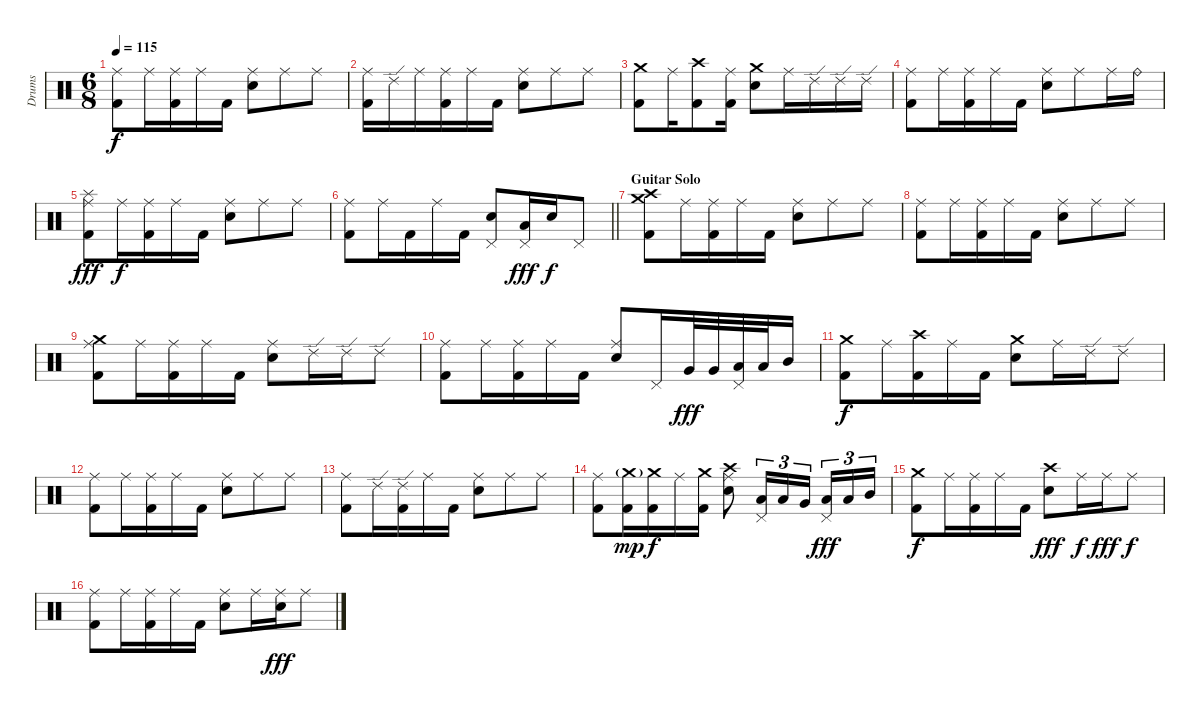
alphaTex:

\track ("Drums" "Drums") {instrument percussion}
\staff {score}
\articulation defaults
\ts (6 8)
\tempo 115
\clef neutral
\ks c
("Ride (middle)" "Kick (hit) 2").8{dy f} "Ride (middle)".16 ("Ride (middle)" "Kick (hit) 2").16 "Ride (middle)".16 "Kick (hit) 2".16 ("Ride (middle)" "Electric Snare (hit)").8 "Ride (middle)".8 "Ride (middle)".8 |
("Ride (middle)" "Kick (hit) 2").16 "Ride (edge) 2".16 "Ride (middle)".16 ("Ride (middle)" "Kick (hit) 2").16 "Ride (middle)".16 "Kick (hit) 2".16 ("Ride (middle)" "Electric Snare (hit)").8 "Ride (middle)".8 "Ride (middle)".8 |
("Crash medium (hit)" "Kick (hit) 2").8 "Ride (middle)".16 ("Crash high (hit)" "Kick (hit) 2").8 ("Ride (middle)" "Kick (hit) 2").16 ("Crash medium (hit)" "Electric Snare (hit)").8 "Ride (middle)".16 "Ride (edge) 2".16 "Ride (edge) 2".16 "Ride (edge) 2".16 |
("Ride (middle)" "Kick (hit) 2").8 "Ride (middle)".16 ("Ride (middle)" "Kick (hit) 2").16 "Ride (middle)".16 "Kick (hit) 2".16 ("Ride (middle)" "Electric Snare (hit)").8 "Ride (middle)".8 "Ride (middle)".16 "Ride (bell)".16 |
("Splash (hit)" "Ride (middle)" "Kick (hit) 2").8{dy fff} "Ride (middle)".16{dy f} ("Ride (middle)" "Kick (hit) 2").16 "Ride (middle)".16 "Kick (hit) 2".16 ("Ride (middle)" "Electric Snare (hit)").8 "Ride (middle)".8 "Ride (middle)".8 |
\barLineRight lightlight
("Ride (middle)" "Kick (hit) 2").8 "Ride (middle)".16 "Kick (hit) 2".16 "Ride (middle)".16 "Kick (hit) 2".16 ("Pedal Hi-Hat (hit)" "Electric Snare (hit)").8 ("Pedal Hi-Hat (hit)" "Low Tom (hit)").16{dy fff} "Electric Snare (hit)".16{dy f} "Pedal Hi-Hat (hit)".8 |
\section ("" "Guitar Solo")
("Crash medium (hit)" "Crash high (hit)" "Kick (hit) 2").8 "Ride (middle)".16 ("Ride (middle)" "Kick (hit) 2").16 "Ride (middle)".16 "Kick (hit) 2".16 ("Ride (middle)" "Electric Snare (hit)").8 "Ride (middle)".8 "Ride (middle)".8 |
("Ride (middle)" "Kick (hit) 2").8 "Ride (middle)".16 ("Ride (middle)" "Kick (hit) 2").16 "Ride (middle)".16 "Kick (hit) 2".16 ("Ride (middle)" "Electric Snare (hit)").8 "Ride (middle)".8 "Ride (middle)".8 |
("Crash medium (hit)" "Ride (middle)" "Kick (hit) 2").8 "Ride (middle)".16 ("Ride (middle)" "Kick (hit) 2").16 "Ride (middle)".16 "Kick (hit) 2".16 ("Ride (middle)" "Electric Snare (hit)").8 "Ride (edge) 2".16 "Ride (edge) 2".16 "Ride (edge) 2".8 |
("Ride (middle)" "Kick (hit) 2").8 "Ride (middle)".16 ("Ride (middle)" "Kick (hit) 2").16 "Ride (middle)".16 "Kick (hit) 2".16 ("Ride (middle)" "Electric Snare (hit)").8 "Pedal Hi-Hat (hit)".16 "Very Low Tom (hit)".32{dy fff} "Very Low Tom (hit)".32 ("Pedal Hi-Hat (hit)" "Low Tom (hit)").32 "Low Tom (hit)".32 "Mid Tom (hit)".16 |
("Crash medium (hit)" "Kick (hit) 2").8{dy f} "Ride (middle)".16 ("Crash high (hit)" "Kick (hit) 2").16 "Ride (middle)".16 "Kick (hit) 2".16 ("Crash medium (hit)" "Electric Snare (hit)").8 "Ride (middle)".16 "Ride (edge) 2".16 "Ride (edge) 2".8 |
("Ride (middle)" "Kick (hit) 2").8 "Ride (middle)".16 ("Ride (middle)" "Kick (hit) 2").16 "Ride (middle)".16 "Kick (hit) 2".16 ("Ride (middle)" "Electric Snare (hit)").8 "Ride (middle)".8 "Ride (middle)".8 |
("Ride (middle)" "Kick (hit) 2").8 "Ride (edge) 2".16 ("Ride (edge) 2" "Kick (hit) 2").16 "Ride (middle)".16 "Kick (hit) 2".16 ("Ride (middle)" "Electric Snare (hit)").8 "Ride (middle)".8 "Ride (middle)".8 |
("Ride (middle)" "Kick (hit) 2").8 ("Crash medium (hit)"{g} "Kick (hit) 2").16{dy mp} ("Crash medium (hit)" "Kick (hit) 2").16{dy f} "Ride (middle)".16 ("Crash medium (hit)" "Kick (hit) 2").16 ("Crash high (hit)" "Ride (middle)" "Electric Snare (hit)").8 ("Pedal Hi-Hat (hit)" "Low Tom (hit)").16{tu (3 2)} "Low Tom (hit)".16{tu (3 2)} "Very Low Tom (hit)".16{tu (3 2)} ("Pedal Hi-Hat (hit)" "Low Tom (hit)").16{tu (3 2) dy fff} "Low Tom (hit)".16{tu (3 2)} "Mid Tom (hit)".16{tu (3 2)} |
("Crash medium (hit)" "Kick (hit) 2").8{dy f} "Ride (middle)".16 ("Ride (middle)" "Kick (hit) 2").16 "Ride (middle)".16 "Kick (hit) 2".16 ("Crash high (hit)" "Electric Snare (hit)").8{dy fff} "Ride (middle)".16{dy f} "Ride (middle)".16{dy fff} "Ride (middle)".8{dy f} |
("Ride (middle)" "Kick (hit) 2").8 "Ride (middle)".16 ("Ride (middle)" "Kick (hit) 2").16 "Ride (middle)".16 "Kick (hit) 2".16 ("Ride (middle)" "Electric Snare (hit)").8 "Ride (middle)".16 ("Ride (middle)" "Electric Snare (hit)").16{dy fff} "Ride (middle)".8
